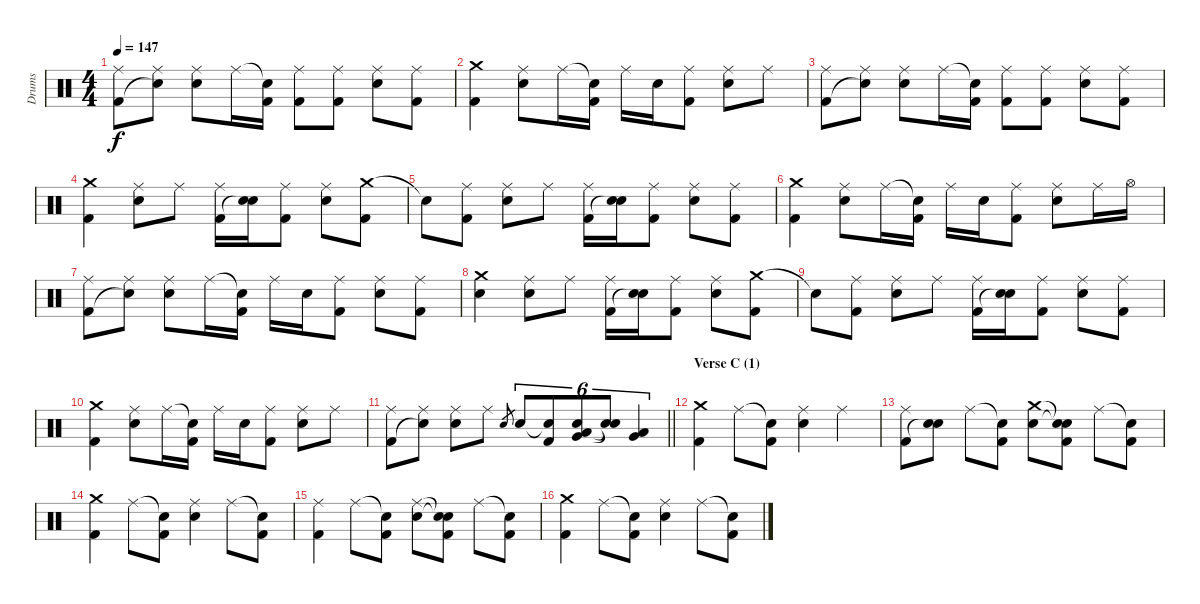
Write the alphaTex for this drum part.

\track ("Drums" "Drums") {instrument percussion}
\staff {score}
\articulation defaults
\ts (4 4)
\tempo 147
\clef neutral
\ks aminor
("Ride (middle)" "Kick (hit) 2").8{dy f} ("Ride (middle)" "Snare (hit)"{t}).8 ("Ride (middle)" "Electric Snare (hit)").8 "Ride (middle)".16 ("Snare (hit)"{t} "Kick (hit) 2").16 ("Ride (middle)" "Kick (hit) 2").8 ("Ride (middle)" "Kick (hit) 2").8 ("Ride (middle)" "Electric Snare (hit)").8 ("Ride (middle)" "Kick (hit) 2").8 |
("Crash medium (hit)" "Kick (hit) 2").4 ("Ride (middle)" "Electric Snare (hit)").8 "Ride (middle)".16 ("Snare (hit)"{t} "Kick (hit) 2").16 "Ride (middle)".16 "Electric Snare (hit)".16 ("Ride (middle)" "Kick (hit) 2").8 ("Ride (middle)" "Electric Snare (hit)").8 "Ride (middle)".8 |
("Ride (middle)" "Kick (hit) 2").8 ("Ride (middle)" "Snare (hit)"{t}).8 ("Ride (middle)" "Electric Snare (hit)").8 "Ride (middle)".16 ("Snare (hit)"{t} "Kick (hit) 2").16 ("Ride (middle)" "Kick (hit) 2").8 ("Ride (middle)" "Kick (hit) 2").8 ("Ride (middle)" "Electric Snare (hit)").8 ("Ride (middle)" "Kick (hit) 2").8 |
("Crash medium (hit)" "Kick (hit) 2").4 ("Ride (middle)" "Electric Snare (hit)").8 "Ride (middle)".8 ("Ride (middle)" "Kick (hit) 2").16 ("Electric Snare (hit)" "Snare (hit)"{t}).16 ("Ride (middle)" "Kick (hit) 2").8 ("Ride (middle)" "Electric Snare (hit)").8 ("Crash medium (hit)" "Kick (hit) 2").8 |
"Snare (hit)"{t}.8 ("Ride (middle)" "Kick (hit) 2").8 ("Ride (middle)" "Electric Snare (hit)").8 "Ride (middle)".8 ("Ride (middle)" "Kick (hit) 2").16 ("Electric Snare (hit)" "Snare (hit)"{t}).16 ("Ride (middle)" "Kick (hit) 2").8 ("Ride (middle)" "Electric Snare (hit)").8 ("Ride (middle)" "Kick (hit) 2").8 |
("Crash medium (hit)" "Kick (hit) 2").4 ("Ride (middle)" "Electric Snare (hit)").8 "Ride (middle)".16 ("Snare (hit)"{t} "Kick (hit) 2").16 "Ride (middle)".16 "Electric Snare (hit)".16 ("Ride (middle)" "Kick (hit) 2").8 ("Ride (middle)" "Electric Snare (hit)").8 "Ride (middle)".16 "Hi-Hat (open)".16 |
("Ride (middle)" "Kick (hit) 2").8 ("Ride (middle)" "Snare (hit)"{t}).8 ("Ride (middle)" "Electric Snare (hit)").8 "Ride (middle)".16 ("Snare (hit)"{t} "Kick (hit) 2").16 "Ride (middle)".16 "Electric Snare (hit)".16 ("Ride (middle)" "Kick (hit) 2").8 ("Ride (middle)" "Electric Snare (hit)").8 ("Ride (middle)" "Kick (hit) 2").8 |
("Crash medium (hit)" "Hand Clap (hit)").4 ("Ride (middle)" "Electric Snare (hit)").8 "Ride (middle)".8 ("Ride (middle)" "Kick (hit) 2").16 ("Electric Snare (hit)" "Snare (hit)"{t}).16 ("Ride (middle)" "Kick (hit) 2").8 ("Ride (middle)" "Electric Snare (hit)").8 ("Crash medium (hit)" "Kick (hit) 2").8 |
"Snare (hit)"{t}.8 ("Ride (middle)" "Kick (hit) 2").8 ("Ride (middle)" "Electric Snare (hit)").8 "Ride (middle)".8 ("Ride (middle)" "Kick (hit) 2").16 ("Electric Snare (hit)" "Snare (hit)"{t}).16 ("Ride (middle)" "Kick (hit) 2").8 ("Ride (middle)" "Electric Snare (hit)").8 ("Ride (middle)" "Kick (hit) 2").8 |
("Crash medium (hit)" "Kick (hit) 2").4 ("Ride (middle)" "Electric Snare (hit)").8 "Ride (middle)".16 ("Snare (hit)"{t} "Kick (hit) 2").16 "Ride (middle)".16 "Electric Snare (hit)".16 ("Ride (middle)" "Kick (hit) 2").8 ("Ride (middle)" "Electric Snare (hit)").8 "Ride (middle)".8 |
\barLineRight lightlight
("Ride (middle)" "Kick (hit) 2").8 ("Ride (middle)" "Snare (hit)"{t}).8 ("Ride (middle)" "Electric Snare (hit)").8 "Ride (middle)".8 "Electric Snare (hit)".8{gr} "Electric Snare (hit)".8{tu (6 4)} ("Snare (hit)"{t} "Kick (hit) 2").8{tu (6 4)} ("Low Tom (hit)" "Very Low Tom (hit)" "Snare (hit)").8{tu (6 4)} ("Snare (hit)"{t} "Snare (hit)"{t}).8{tu (6 4)} ("Very Low Tom (hit)" "Low Floor Tom (hit)").4{tu (6 4)} |
\section ("" "Verse C (1)")
("Crash medium (hit)" "Kick (hit) 2").4 "Ride (middle)".8 ("Snare (hit)"{t} "Kick (hit) 2").8 ("Ride (middle)" "Electric Snare (hit)").4 "Ride (middle)".4 |
("Ride (middle)" "Kick (hit) 2").8 ("Electric Snare (hit)" "Snare (hit)"{t}).8 "Ride (middle)".8 ("Snare (hit)"{t} "Kick (hit) 2").8 ("Crash medium (hit)" "Electric Snare (hit)").8 ("Snare (hit)"{t} "Snare (hit)"{t} "Kick (hit) 2").8 "Ride (middle)".8 ("Snare (hit)"{t} "Kick (hit) 2").8 |
("Crash medium (hit)" "Kick (hit) 2").4 "Ride (middle)".8 ("Snare (hit)"{t} "Kick (hit) 2").8 ("Ride (middle)" "Electric Snare (hit)").4 "Ride (middle)".8 ("Snare (hit)"{t} "Kick (hit) 2").8 |
("Ride (middle)" "Kick (hit) 2").4 "Ride (middle)".8 ("Snare (hit)"{t} "Kick (hit) 2").8 ("Ride (middle)" "Electric Snare (hit)").8 ("Snare (hit)"{t} "Snare (hit)"{t} "Kick (hit) 2").8 "Ride (middle)".8 ("Snare (hit)"{t} "Kick (hit) 2").8 |
("Crash medium (hit)" "Kick (hit) 2").4 "Ride (middle)".8 ("Snare (hit)"{t} "Kick (hit) 2").8 ("Ride (middle)" "Electric Snare (hit)").4 "Ride (middle)".8 ("Snare (hit)"{t} "Kick (hit) 2").8
